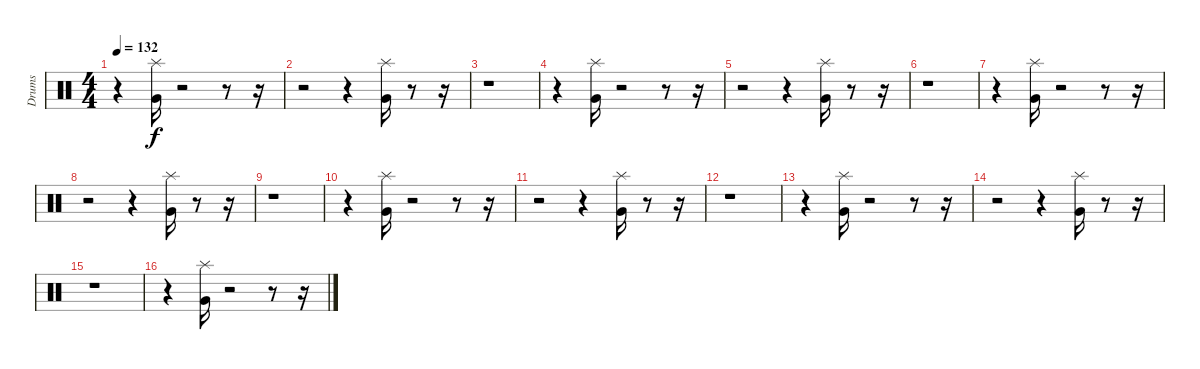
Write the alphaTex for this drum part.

\track ("Drums" "Drums") {instrument percussion}
\staff {score}
\articulation defaults
\ts (4 4)
\tempo 132
\clef neutral
\ks c
r.4{dy f} ("Very Low Tom (hit)" "Splash (hit)").16 r.2 r.8 r.16 |
r.2 r.4 ("Very Low Tom (hit)" "Splash (hit)").16 r.8 r.16 |
r.1 |
r.4 ("Very Low Tom (hit)" "Splash (hit)").16 r.2 r.8 r.16 |
r.2 r.4 ("Very Low Tom (hit)" "Splash (hit)").16 r.8 r.16 |
r.1 |
r.4 ("Very Low Tom (hit)" "Splash (hit)").16 r.2 r.8 r.16 |
r.2 r.4 ("Very Low Tom (hit)" "Splash (hit)").16 r.8 r.16 |
r.1 |
r.4 ("Very Low Tom (hit)" "Splash (hit)").16 r.2 r.8 r.16 |
r.2 r.4 ("Very Low Tom (hit)" "Splash (hit)").16 r.8 r.16 |
r.1 |
r.4 ("Very Low Tom (hit)" "Splash (hit)").16 r.2 r.8 r.16 |
r.2 r.4 ("Very Low Tom (hit)" "Splash (hit)").16 r.8 r.16 |
r.1 |
r.4 ("Very Low Tom (hit)" "Splash (hit)").16 r.2 r.8 r.16
